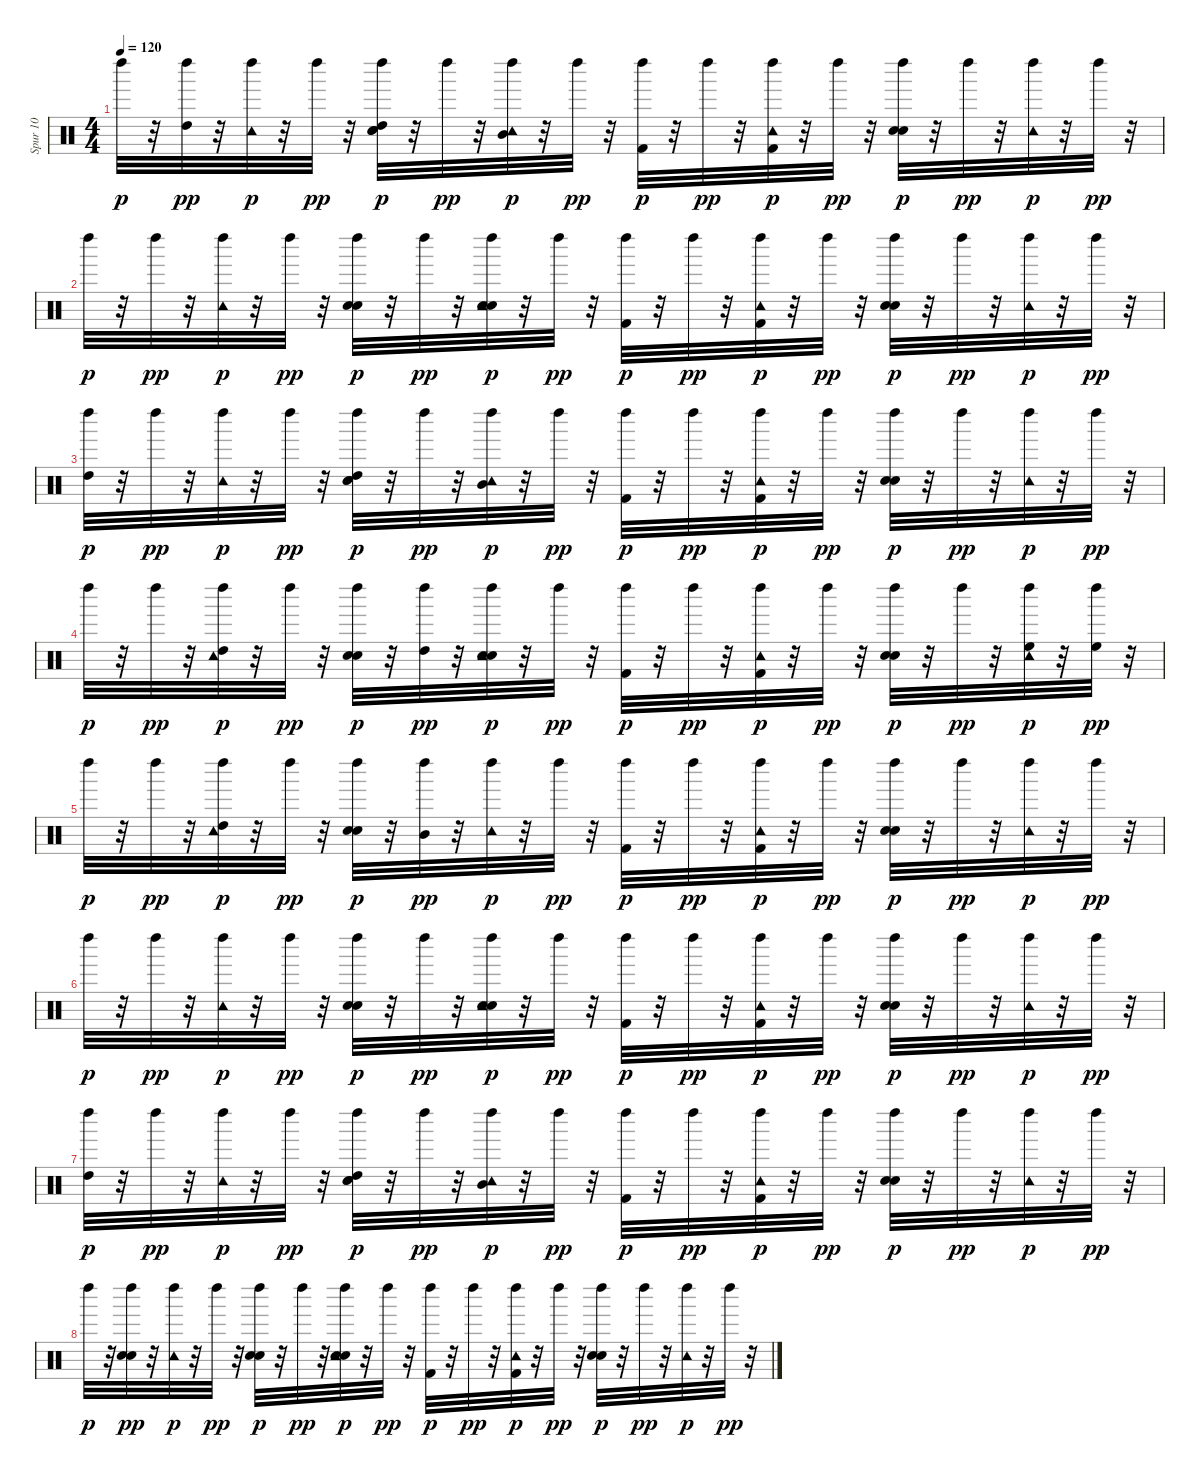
\track ("Spur 10" "Spur 10") {instrument percussion}
\staff {score}
\articulation defaults
\ts (4 4)
\tempo 120
\clef neutral
\ks c "Left Maraca (hit)".32{dy p}
r.32 ("High Tom (hit)" "Left Maraca (hit)").32{dy pp} r.32 ("Tambourine (hit)" "Left Maraca (hit)").32{dy p} r.32 "Left Maraca (hit)".32{dy pp} r.32 ("Hand Clap (hit)" "Electric Snare (hit)" "High Tom (hit)" "Left Maraca (hit)").32{dy p} r.32 "Left Maraca (hit)".32{dy pp} r.32 ("Mid Tom (hit)" "Tambourine (hit)" "Left Maraca (hit)").32{dy p} r.32 "Left Maraca (hit)".32{dy pp} r.32 ("Kick (hit) 2" "Left Maraca (hit)").32{dy p} r.32 "Left Maraca (hit)".32{dy pp} r.32 ("Kick (hit) 2" "Tambourine (hit)" "Left Maraca (hit)").32{dy p} r.32 "Left Maraca (hit)".32{dy pp} r.32 ("Hand Clap (hit)" "Electric Snare (hit)" "Left Maraca (hit)").32{dy p} r.32 "Left Maraca (hit)".32{dy pp} r.32 ("Tambourine (hit)" "Left Maraca (hit)").32{dy p} r.32 "Left Maraca (hit)".32{dy pp} r.32 |
"Left Maraca (hit)".32{dy p} r.32 "Left Maraca (hit)".32{dy pp} r.32 ("Tambourine (hit)" "Left Maraca (hit)").32{dy p} r.32 "Left Maraca (hit)".32{dy pp} r.32 ("Hand Clap (hit)" "Electric Snare (hit)" "Left Maraca (hit)").32{dy p} r.32 "Left Maraca (hit)".32{dy pp} r.32 ("Hand Clap (hit)" "Electric Snare (hit)" "Tambourine (hit)" "Left Maraca (hit)").32{dy p} r.32 "Left Maraca (hit)".32{dy pp} r.32 ("Kick (hit) 2" "Left Maraca (hit)").32{dy p} r.32 "Left Maraca (hit)".32{dy pp} r.32 ("Kick (hit) 2" "Tambourine (hit)" "Left Maraca (hit)").32{dy p} r.32 "Left Maraca (hit)".32{dy pp} r.32 ("Hand Clap (hit)" "Electric Snare (hit)" "Left Maraca (hit)").32{dy p} r.32 "Left Maraca (hit)".32{dy pp} r.32 ("Tambourine (hit)" "Left Maraca (hit)").32{dy p} r.32 "Left Maraca (hit)".32{dy pp} r.32 |
("High Tom (hit)" "Left Maraca (hit)").32{dy p} r.32 "Left Maraca (hit)".32{dy pp} r.32 ("Tambourine (hit)" "Left Maraca (hit)").32{dy p} r.32 "Left Maraca (hit)".32{dy pp} r.32 ("Hand Clap (hit)" "Electric Snare (hit)" "High Tom (hit)" "Left Maraca (hit)").32{dy p} r.32 "Left Maraca (hit)".32{dy pp} r.32 ("Mid Tom (hit)" "Tambourine (hit)" "Left Maraca (hit)").32{dy p} r.32 "Left Maraca (hit)".32{dy pp} r.32 ("Kick (hit) 2" "Left Maraca (hit)").32{dy p} r.32 "Left Maraca (hit)".32{dy pp} r.32 ("Kick (hit) 2" "Tambourine (hit)" "Left Maraca (hit)").32{dy p} r.32 "Left Maraca (hit)".32{dy pp} r.32 ("Hand Clap (hit)" "Electric Snare (hit)" "Left Maraca (hit)").32{dy p} r.32 "Left Maraca (hit)".32{dy pp} r.32 ("Tambourine (hit)" "Left Maraca (hit)").32{dy p} r.32 "Left Maraca (hit)".32{dy pp} r.32 |
"Left Maraca (hit)".32{dy p} r.32 "Left Maraca (hit)".32{dy pp} r.32 ("High Tom (hit)" "Tambourine (hit)" "Left Maraca (hit)").32{dy p} r.32 "Left Maraca (hit)".32{dy pp} r.32 ("Hand Clap (hit)" "Electric Snare (hit)" "Left Maraca (hit)").32{dy p} r.32 ("High Tom (hit)" "Left Maraca (hit)").32{dy pp} r.32 ("Hand Clap (hit)" "Electric Snare (hit)" "Tambourine (hit)" "Left Maraca (hit)").32{dy p} r.32 "Left Maraca (hit)".32{dy pp} r.32 ("Kick (hit) 2" "Left Maraca (hit)").32{dy p} r.32 "Left Maraca (hit)".32{dy pp} r.32 ("Kick (hit) 2" "Tambourine (hit)" "Left Maraca (hit)").32{dy p} r.32 "Left Maraca (hit)".32{dy pp} r.32 ("Hand Clap (hit)" "Electric Snare (hit)" "Left Maraca (hit)").32{dy p} r.32 "Left Maraca (hit)".32{dy pp} r.32 ("High Floor Tom (hit)" "Tambourine (hit)" "Left Maraca (hit)").32{dy p} r.32 ("High Floor Tom (hit)" "Left Maraca (hit)").32{dy pp} r.32 |
"Left Maraca (hit)".32{dy p} r.32 "Left Maraca (hit)".32{dy pp} r.32 ("High Tom (hit)" "Tambourine (hit)" "Left Maraca (hit)").32{dy p} r.32 "Left Maraca (hit)".32{dy pp} r.32 ("Hand Clap (hit)" "Electric Snare (hit)" "Left Maraca (hit)").32{dy p} r.32 ("Mid Tom (hit)" "Left Maraca (hit)").32{dy pp} r.32 ("Tambourine (hit)" "Left Maraca (hit)").32{dy p} r.32 "Left Maraca (hit)".32{dy pp} r.32 ("Kick (hit) 2" "Left Maraca (hit)").32{dy p} r.32 "Left Maraca (hit)".32{dy pp} r.32 ("Kick (hit) 2" "Tambourine (hit)" "Left Maraca (hit)").32{dy p} r.32 "Left Maraca (hit)".32{dy pp} r.32 ("Hand Clap (hit)" "Electric Snare (hit)" "Left Maraca (hit)").32{dy p} r.32 "Left Maraca (hit)".32{dy pp} r.32 ("Tambourine (hit)" "Left Maraca (hit)").32{dy p} r.32 "Left Maraca (hit)".32{dy pp} r.32 |
"Left Maraca (hit)".32{dy p} r.32 "Left Maraca (hit)".32{dy pp} r.32 ("Tambourine (hit)" "Left Maraca (hit)").32{dy p} r.32 "Left Maraca (hit)".32{dy pp} r.32 ("Hand Clap (hit)" "Electric Snare (hit)" "Left Maraca (hit)").32{dy p} r.32 "Left Maraca (hit)".32{dy pp} r.32 ("Hand Clap (hit)" "Electric Snare (hit)" "Tambourine (hit)" "Left Maraca (hit)").32{dy p} r.32 "Left Maraca (hit)".32{dy pp} r.32 ("Kick (hit) 2" "Left Maraca (hit)").32{dy p} r.32 "Left Maraca (hit)".32{dy pp} r.32 ("Kick (hit) 2" "Tambourine (hit)" "Left Maraca (hit)").32{dy p} r.32 "Left Maraca (hit)".32{dy pp} r.32 ("Hand Clap (hit)" "Electric Snare (hit)" "Left Maraca (hit)").32{dy p} r.32 "Left Maraca (hit)".32{dy pp} r.32 ("Tambourine (hit)" "Left Maraca (hit)").32{dy p} r.32 "Left Maraca (hit)".32{dy pp} r.32 |
("High Tom (hit)" "Left Maraca (hit)").32{dy p} r.32 "Left Maraca (hit)".32{dy pp} r.32 ("Tambourine (hit)" "Left Maraca (hit)").32{dy p} r.32 "Left Maraca (hit)".32{dy pp} r.32 ("Hand Clap (hit)" "Electric Snare (hit)" "High Tom (hit)" "Left Maraca (hit)").32{dy p} r.32 "Left Maraca (hit)".32{dy pp} r.32 ("Mid Tom (hit)" "Tambourine (hit)" "Left Maraca (hit)").32{dy p} r.32 "Left Maraca (hit)".32{dy pp} r.32 ("Kick (hit) 2" "Left Maraca (hit)").32{dy p} r.32 "Left Maraca (hit)".32{dy pp} r.32 ("Kick (hit) 2" "Tambourine (hit)" "Left Maraca (hit)").32{dy p} r.32 "Left Maraca (hit)".32{dy pp} r.32 ("Hand Clap (hit)" "Electric Snare (hit)" "Left Maraca (hit)").32{dy p} r.32 "Left Maraca (hit)".32{dy pp} r.32 ("Tambourine (hit)" "Left Maraca (hit)").32{dy p} r.32 "Left Maraca (hit)".32{dy pp} r.32 |
"Left Maraca (hit)".32{dy p} r.32 ("Hand Clap (hit)" "Electric Snare (hit)" "Left Maraca (hit)").32{dy pp} r.32 ("Tambourine (hit)" "Left Maraca (hit)").32{dy p} r.32 "Left Maraca (hit)".32{dy pp} r.32 ("Hand Clap (hit)" "Electric Snare (hit)" "Left Maraca (hit)").32{dy p} r.32 "Left Maraca (hit)".32{dy pp} r.32 ("Hand Clap (hit)" "Electric Snare (hit)" "Tambourine (hit)" "Left Maraca (hit)").32{dy p} r.32 "Left Maraca (hit)".32{dy pp} r.32 ("Kick (hit) 2" "Left Maraca (hit)").32{dy p} r.32 "Left Maraca (hit)".32{dy pp} r.32 ("Kick (hit) 2" "Tambourine (hit)" "Left Maraca (hit)").32{dy p} r.32 "Left Maraca (hit)".32{dy pp} r.32 ("Hand Clap (hit)" "Electric Snare (hit)" "Left Maraca (hit)").32{dy p} r.32 "Left Maraca (hit)".32{dy pp} r.32 ("Tambourine (hit)" "Left Maraca (hit)").32{dy p} r.32 "Left Maraca (hit)".32{dy pp} r.32
